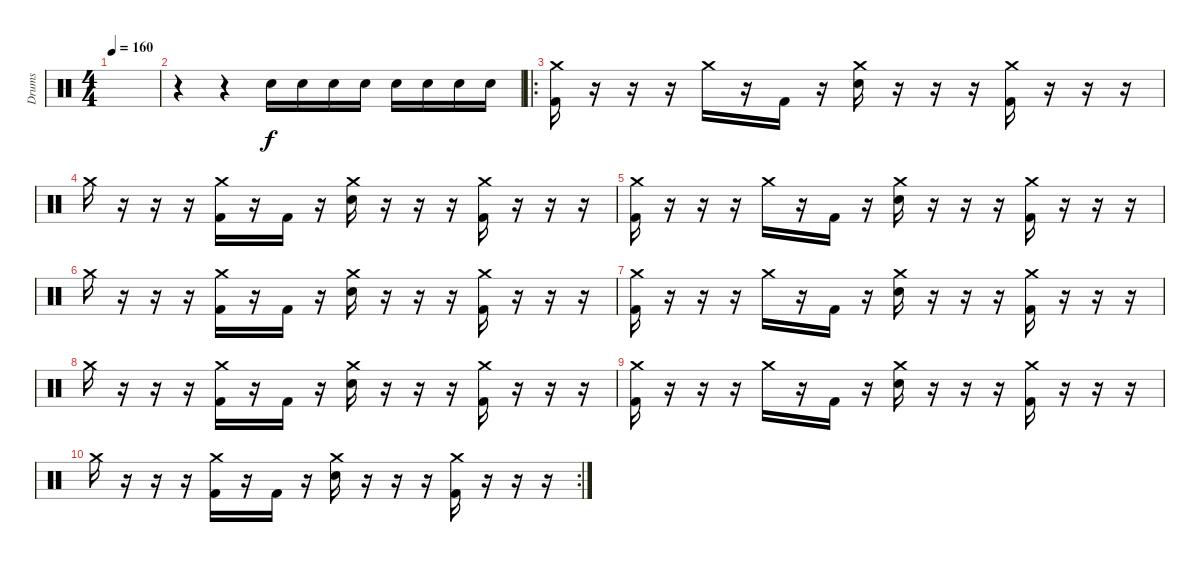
\track ("Drums" "Drums") {instrument percussion}
\staff {score}
\articulation defaults
\ts (4 4)
\tempo 160
\clef neutral
\ks c
|
r.4 r.4{volume 0} "Electric Snare (hit)".16{dy f volume 16} "Electric Snare (hit)".16 "Electric Snare (hit)".16 "Electric Snare (hit)".16 "Electric Snare (hit)".16 "Electric Snare (hit)".16 "Electric Snare (hit)".16 "Electric Snare (hit)".16 |
\ro
("Crash medium (hit)" "Kick (hit) 2").16{volume 9} r.16 r.16 r.16 "Crash medium (hit)".16 r.16 "Kick (hit) 2".16 r.16 ("Crash medium (hit)" "Electric Snare (hit)").16 r.16 r.16 r.16 ("Crash medium (hit)" "Kick (hit) 2").16 r.16 r.16 r.16 |
"Crash medium (hit)".16 r.16 r.16 r.16 ("Crash medium (hit)" "Kick (hit) 2").16 r.16 "Kick (hit) 2".16 r.16 ("Crash medium (hit)" "Electric Snare (hit)").16 r.16 r.16 r.16 ("Crash medium (hit)" "Kick (hit) 2").16 r.16 r.16 r.16 |
("Crash medium (hit)" "Kick (hit) 2").16 r.16 r.16 r.16 "Crash medium (hit)".16 r.16 "Kick (hit) 2".16 r.16 ("Crash medium (hit)" "Electric Snare (hit)").16 r.16 r.16 r.16 ("Crash medium (hit)" "Kick (hit) 2").16 r.16 r.16 r.16 |
"Crash medium (hit)".16 r.16 r.16 r.16 ("Crash medium (hit)" "Kick (hit) 2").16 r.16 "Kick (hit) 2".16 r.16 ("Crash medium (hit)" "Electric Snare (hit)").16 r.16 r.16 r.16 ("Crash medium (hit)" "Kick (hit) 2").16 r.16 r.16 r.16 |
("Crash medium (hit)" "Kick (hit) 2").16 r.16 r.16 r.16 "Crash medium (hit)".16 r.16 "Kick (hit) 2".16 r.16 ("Crash medium (hit)" "Electric Snare (hit)").16 r.16 r.16 r.16 ("Crash medium (hit)" "Kick (hit) 2").16 r.16 r.16 r.16 |
"Crash medium (hit)".16 r.16 r.16 r.16 ("Crash medium (hit)" "Kick (hit) 2").16 r.16 "Kick (hit) 2".16 r.16 ("Crash medium (hit)" "Electric Snare (hit)").16 r.16 r.16 r.16 ("Crash medium (hit)" "Kick (hit) 2").16 r.16 r.16 r.16 |
("Crash medium (hit)" "Kick (hit) 2").16 r.16 r.16 r.16 "Crash medium (hit)".16 r.16 "Kick (hit) 2".16 r.16 ("Crash medium (hit)" "Electric Snare (hit)").16 r.16 r.16 r.16 ("Crash medium (hit)" "Kick (hit) 2").16 r.16 r.16 r.16 |
\rc 2 "Crash medium (hit)".16
r.16 r.16 r.16 ("Crash medium (hit)" "Kick (hit) 2").16 r.16 "Kick (hit) 2".16 r.16 ("Crash medium (hit)" "Electric Snare (hit)").16 r.16 r.16 r.16 ("Crash medium (hit)" "Kick (hit) 2").16 r.16 r.16 r.16
